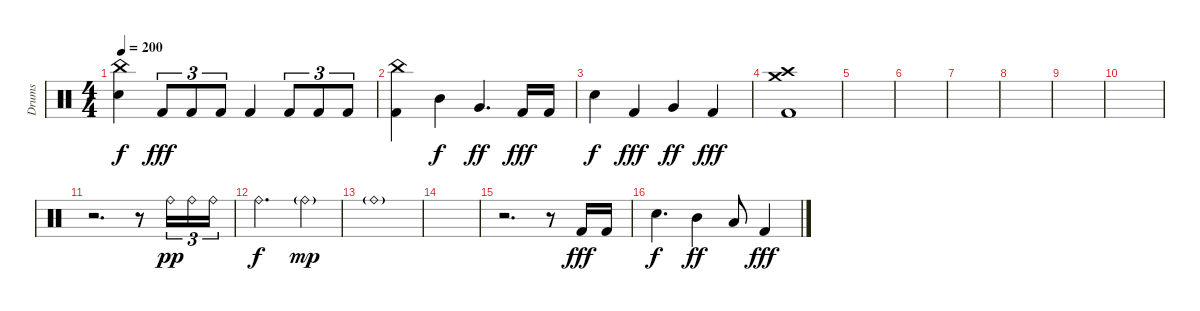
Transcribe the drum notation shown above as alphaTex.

\track ("Drums" "Drums") {instrument percussion}
\staff {score}
\articulation defaults
\ts (4 4)
\tempo 200
\clef neutral
\ks c
("China (hit)" "Snare (hit) 2").4{dy f} "Kick (hit) 2".8{tu (3 2) dy fff} "Kick (hit) 2".8{tu (3 2)} "Kick (hit) 2".8{tu (3 2)} "Kick (hit) 2".4 "Kick (hit) 2".8{tu (3 2)} "Kick (hit) 2".8{tu (3 2)} "Kick (hit) 2".8{tu (3 2)} |
("China (hit)" "Kick (hit) 2").4 "Mid Tom (hit)".4{dy f} "Very Low Tom (hit)".4{d dy ff} "Kick (hit) 2".16{dy fff} "Kick (hit) 2".16 |
"Snare (hit) 2".4{dy f} "Kick (hit) 2".4{dy fff} "Very Low Tom (hit)".4{dy ff} "Kick (hit) 2".4{dy fff} |
("Crash medium (hit)" "Crash high (hit)" "Kick (hit) 2").1 |
|
|
|
|
|
|
r.2{d} r.8 "Ride (bell)".16{tu (3 2) dy pp} "Ride (bell)".16{tu (3 2)} "Ride (bell)".16{tu (3 2)} |
"Ride (bell)".2{d dy f} "Ride (bell)"{g}.4{dy mp} |
"Ride (bell)"{g}.1 |
|
r.2{d} r.8 "Kick (hit) 2".16{dy fff} "Kick (hit) 2".16 |
"Snare (hit) 2".4{d dy f} "Mid Tom (hit)".4{dy ff} "Low Tom (hit)".8 "Kick (hit) 2".4{dy fff}
